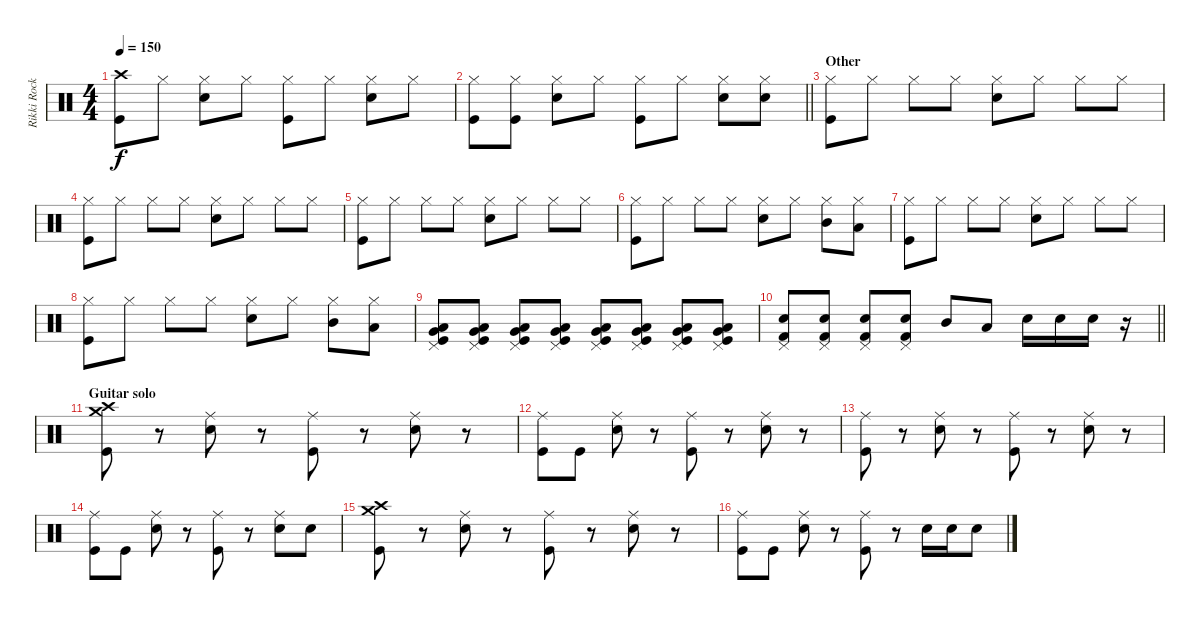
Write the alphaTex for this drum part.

\track ("Rikki Rocket" "Rikki Rock") {instrument percussion}
\staff {score}
\articulation defaults
\ts (4 4)
\tempo 150
\clef neutral
\ks c
("Crash high (hit)" "Kick (hit)").8{dy f} "Hi-Hat (closed)".8 ("Hi-Hat (closed)" "Electric Snare (hit)").8 "Hi-Hat (closed)".8 ("Hi-Hat (closed)" "Kick (hit)").8 "Hi-Hat (closed)".8 ("Hi-Hat (closed)" "Electric Snare (hit)").8 "Hi-Hat (closed)".8 |
\barLineRight lightlight
("Hi-Hat (closed)" "Kick (hit)").8 ("Hi-Hat (closed)" "Kick (hit)").8 ("Hi-Hat (closed)" "Electric Snare (hit)").8 "Hi-Hat (closed)".8 ("Hi-Hat (closed)" "Kick (hit)").8 "Hi-Hat (closed)".8 ("Hi-Hat (closed)" "Electric Snare (hit)").8 ("Hi-Hat (closed)" "Electric Snare (hit)").8 |
\section ("" "Other")
("Hi-Hat (closed)" "Kick (hit)").8 "Hi-Hat (closed)".8 "Hi-Hat (closed)".8 "Hi-Hat (closed)".8 ("Hi-Hat (closed)" "Electric Snare (hit)").8 "Hi-Hat (closed)".8 "Hi-Hat (closed)".8 "Hi-Hat (closed)".8 |
("Hi-Hat (closed)" "Kick (hit)").8 "Hi-Hat (closed)".8 "Hi-Hat (closed)".8 "Hi-Hat (closed)".8 ("Hi-Hat (closed)" "Electric Snare (hit)").8 "Hi-Hat (closed)".8 "Hi-Hat (closed)".8 "Hi-Hat (closed)".8 |
("Hi-Hat (closed)" "Kick (hit)").8 "Hi-Hat (closed)".8 "Hi-Hat (closed)".8 "Hi-Hat (closed)".8 ("Hi-Hat (closed)" "Electric Snare (hit)").8 "Hi-Hat (closed)".8 "Hi-Hat (closed)".8 "Hi-Hat (closed)".8 |
("Hi-Hat (closed)" "Kick (hit)").8 "Hi-Hat (closed)".8 "Hi-Hat (closed)".8 "Hi-Hat (closed)".8 ("Hi-Hat (closed)" "Electric Snare (hit)").8 "Hi-Hat (closed)".8 ("Hi-Hat (closed)" "Mid Tom (hit)").8 ("Hi-Hat (closed)" "Low Tom (hit)").8 |
("Hi-Hat (closed)" "Kick (hit)").8 "Hi-Hat (closed)".8 "Hi-Hat (closed)".8 "Hi-Hat (closed)".8 ("Hi-Hat (closed)" "Electric Snare (hit)").8 "Hi-Hat (closed)".8 "Hi-Hat (closed)".8 "Hi-Hat (closed)".8 |
("Hi-Hat (closed)" "Kick (hit)").8 "Hi-Hat (closed)".8 "Hi-Hat (closed)".8 "Hi-Hat (closed)".8 ("Hi-Hat (closed)" "Electric Snare (hit)").8 "Hi-Hat (closed)".8 ("Hi-Hat (closed)" "Mid Tom (hit)").8 ("Hi-Hat (closed)" "Low Tom (hit)").8 |
("Pedal Hi-Hat (hit)" "Low Tom (hit)" "Very Low Tom (hit)" "Kick (hit)").8 ("Pedal Hi-Hat (hit)" "Low Tom (hit)" "Very Low Tom (hit)" "Kick (hit)").8 ("Pedal Hi-Hat (hit)" "Low Tom (hit)" "Very Low Tom (hit)" "Kick (hit)").8 ("Pedal Hi-Hat (hit)" "Low Tom (hit)" "Very Low Tom (hit)" "Kick (hit)").8 ("Pedal Hi-Hat (hit)" "Low Tom (hit)" "Very Low Tom (hit)" "Kick (hit)").8 ("Pedal Hi-Hat (hit)" "Low Tom (hit)" "Very Low Tom (hit)" "Kick (hit)").8 ("Pedal Hi-Hat (hit)" "Low Tom (hit)" "Very Low Tom (hit)" "Kick (hit)").8 ("Pedal Hi-Hat (hit)" "Low Tom (hit)" "Very Low Tom (hit)" "Kick (hit)").8 |
\barLineRight lightlight
("Pedal Hi-Hat (hit)" "Electric Snare (hit)" "Kick (hit) 2").8 ("Pedal Hi-Hat (hit)" "Electric Snare (hit)" "Kick (hit) 2").8 ("Pedal Hi-Hat (hit)" "Electric Snare (hit)" "Kick (hit) 2").8 ("Pedal Hi-Hat (hit)" "Electric Snare (hit)" "Kick (hit) 2").8 "Mid Tom (hit)".8 "Low Tom (hit)".8 "Electric Snare (hit)".16 "Electric Snare (hit)".16 "Electric Snare (hit)".16 r.16 |
\section ("" "Guitar solo")
("Crash medium (hit)" "Crash high (hit)" "Kick (hit)").8 r.8 ("Ride (middle)" "Electric Snare (hit)").8 r.8 ("Ride (middle)" "Kick (hit)").8 r.8 ("Ride (middle)" "Electric Snare (hit)").8 r.8 |
("Ride (middle)" "Kick (hit)").8 "Kick (hit)".8 ("Ride (middle)" "Electric Snare (hit)").8 r.8 ("Ride (middle)" "Kick (hit)").8 r.8 ("Ride (middle)" "Electric Snare (hit)").8 r.8 |
("Ride (middle)" "Kick (hit)").8 r.8 ("Ride (middle)" "Electric Snare (hit)").8 r.8 ("Ride (middle)" "Kick (hit)").8 r.8 ("Ride (middle)" "Electric Snare (hit)").8 r.8 |
("Ride (middle)" "Kick (hit)").8 "Kick (hit)".8 ("Ride (middle)" "Electric Snare (hit)").8 r.8 ("Ride (middle)" "Kick (hit)").8 r.8 ("Ride (middle)" "Electric Snare (hit)").8 "Electric Snare (hit)".8 |
("Crash medium (hit)" "Crash high (hit)" "Kick (hit)").8 r.8 ("Ride (middle)" "Electric Snare (hit)").8 r.8 ("Ride (middle)" "Kick (hit)").8 r.8 ("Ride (middle)" "Electric Snare (hit)").8 r.8 |
("Ride (middle)" "Kick (hit)").8 "Kick (hit)".8 ("Ride (middle)" "Electric Snare (hit)").8 r.8 ("Ride (middle)" "Kick (hit)").8 r.8 "Electric Snare (hit)".16 "Electric Snare (hit)".16 "Electric Snare (hit)".8
